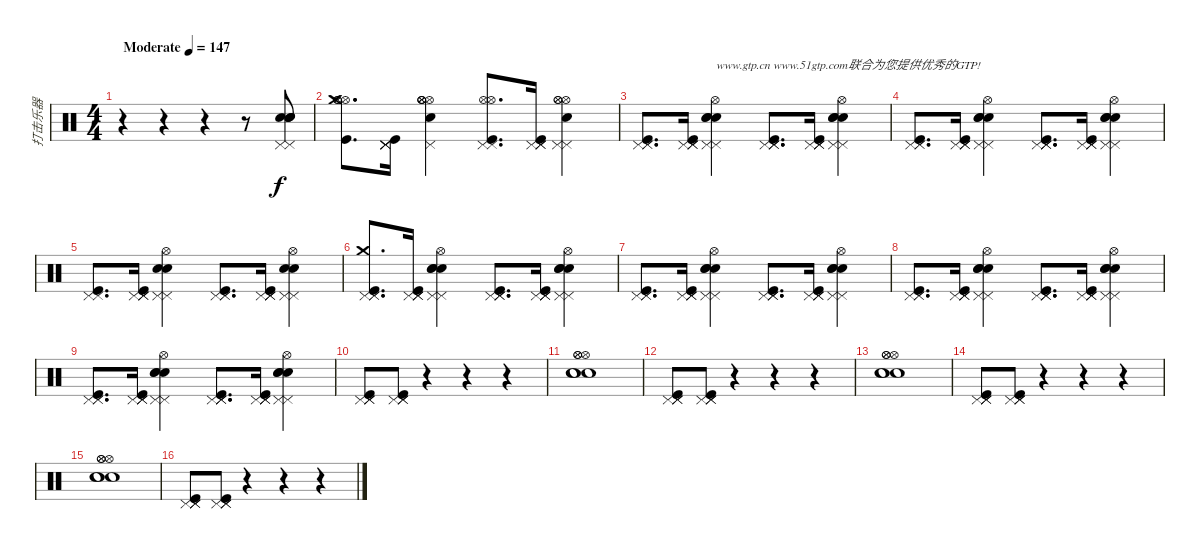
\track ("打击乐器" "打击乐器") {instrument percussion}
\staff {score}
\articulation defaults
\ts (4 4)
\tempo (147 "Moderate")
\clef neutral
\ks c
r.4{dy f} r.4 r.4 r.8 ("Pedal Hi-Hat (hit)" "Pedal Hi-Hat (hit)" "Electric Snare (hit)" "Electric Snare (hit)" "Electric Snare (hit)" "Electric Snare (hit)").8 |
("Hi-Hat (open)" "Hi-Hat (open)" "Hi-Hat (open)" "Crash medium (hit)" "Kick (hit)").8{d} ("Pedal Hi-Hat (hit)" "Pedal Hi-Hat (hit)" "Pedal Hi-Hat (hit)" "Pedal Hi-Hat (hit)" "Kick (hit)").16 ("Hi-Hat (open)" "Hi-Hat (open)" "Hi-Hat (open)" "Hi-Hat (open)" "Electric Snare (hit)" "Pedal Hi-Hat (hit)").4 ("Hi-Hat (open)" "Hi-Hat (open)" "Pedal Hi-Hat (hit)" "Pedal Hi-Hat (hit)" "Kick (hit)").8{d} ("Pedal Hi-Hat (hit)" "Pedal Hi-Hat (hit)" "Pedal Hi-Hat (hit)" "Pedal Hi-Hat (hit)" "Kick (hit)").16 ("Hi-Hat (open)" "Hi-Hat (open)" "Electric Snare (hit)" "Hi-Hat (open)" "Pedal Hi-Hat (hit)" "Pedal Hi-Hat (hit)").4 |
("Pedal Hi-Hat (hit)" "Pedal Hi-Hat (hit)" "Pedal Hi-Hat (hit)" "Kick (hit)").8{d} ("Pedal Hi-Hat (hit)" "Pedal Hi-Hat (hit)" "Pedal Hi-Hat (hit)" "Pedal Hi-Hat (hit)" "Kick (hit)").16 ("Electric Snare (hit)" "Electric Snare (hit)" "Electric Snare (hit)" "Hi-Hat (open)" "Pedal Hi-Hat (hit)" "Pedal Hi-Hat (hit)").4{txt "www.gtp.cn www.51gtp.com联合为您提供优秀的GTP!"} ("Pedal Hi-Hat (hit)" "Pedal Hi-Hat (hit)" "Pedal Hi-Hat (hit)" "Pedal Hi-Hat (hit)" "Kick (hit)").8{d} ("Pedal Hi-Hat (hit)" "Pedal Hi-Hat (hit)" "Pedal Hi-Hat (hit)" "Pedal Hi-Hat (hit)" "Kick (hit)").16 ("Electric Snare (hit)" "Electric Snare (hit)" "Electric Snare (hit)" "Hi-Hat (open)" "Pedal Hi-Hat (hit)" "Pedal Hi-Hat (hit)").4 |
("Pedal Hi-Hat (hit)" "Pedal Hi-Hat (hit)" "Pedal Hi-Hat (hit)" "Kick (hit)").8{d} ("Pedal Hi-Hat (hit)" "Pedal Hi-Hat (hit)" "Pedal Hi-Hat (hit)" "Pedal Hi-Hat (hit)" "Kick (hit)").16 ("Electric Snare (hit)" "Electric Snare (hit)" "Electric Snare (hit)" "Hi-Hat (open)" "Pedal Hi-Hat (hit)" "Pedal Hi-Hat (hit)").4 ("Pedal Hi-Hat (hit)" "Pedal Hi-Hat (hit)" "Pedal Hi-Hat (hit)" "Pedal Hi-Hat (hit)" "Kick (hit)").8{d} ("Pedal Hi-Hat (hit)" "Pedal Hi-Hat (hit)" "Pedal Hi-Hat (hit)" "Pedal Hi-Hat (hit)" "Kick (hit)").16 ("Electric Snare (hit)" "Electric Snare (hit)" "Electric Snare (hit)" "Hi-Hat (open)" "Pedal Hi-Hat (hit)" "Pedal Hi-Hat (hit)").4 |
("Pedal Hi-Hat (hit)" "Pedal Hi-Hat (hit)" "Kick (hit)").8{d} ("Pedal Hi-Hat (hit)" "Pedal Hi-Hat (hit)" "Pedal Hi-Hat (hit)" "Pedal Hi-Hat (hit)" "Kick (hit)").16 ("Electric Snare (hit)" "Electric Snare (hit)" "Hi-Hat (open)" "Pedal Hi-Hat (hit)" "Pedal Hi-Hat (hit)").4 ("Pedal Hi-Hat (hit)" "Pedal Hi-Hat (hit)" "Pedal Hi-Hat (hit)" "Kick (hit)").8{d} ("Pedal Hi-Hat (hit)" "Pedal Hi-Hat (hit)" "Pedal Hi-Hat (hit)" "Pedal Hi-Hat (hit)" "Kick (hit)").16 ("Electric Snare (hit)" "Electric Snare (hit)" "Hi-Hat (open)" "Pedal Hi-Hat (hit)" "Pedal Hi-Hat (hit)").4 |
("Pedal Hi-Hat (hit)" "Pedal Hi-Hat (hit)" "Pedal Hi-Hat (hit)" "Crash medium (hit)" "Kick (hit)").8{d} ("Pedal Hi-Hat (hit)" "Pedal Hi-Hat (hit)" "Pedal Hi-Hat (hit)" "Pedal Hi-Hat (hit)" "Kick (hit)").16 ("Electric Snare (hit)" "Electric Snare (hit)" "Electric Snare (hit)" "Hi-Hat (open)" "Pedal Hi-Hat (hit)" "Pedal Hi-Hat (hit)").4 ("Pedal Hi-Hat (hit)" "Pedal Hi-Hat (hit)" "Pedal Hi-Hat (hit)" "Pedal Hi-Hat (hit)" "Kick (hit)").8{d} ("Pedal Hi-Hat (hit)" "Pedal Hi-Hat (hit)" "Pedal Hi-Hat (hit)" "Pedal Hi-Hat (hit)" "Kick (hit)").16 ("Electric Snare (hit)" "Electric Snare (hit)" "Electric Snare (hit)" "Hi-Hat (open)" "Pedal Hi-Hat (hit)" "Pedal Hi-Hat (hit)").4 |
("Pedal Hi-Hat (hit)" "Pedal Hi-Hat (hit)" "Pedal Hi-Hat (hit)" "Kick (hit)").8{d} ("Pedal Hi-Hat (hit)" "Pedal Hi-Hat (hit)" "Pedal Hi-Hat (hit)" "Pedal Hi-Hat (hit)" "Kick (hit)").16 ("Electric Snare (hit)" "Electric Snare (hit)" "Electric Snare (hit)" "Hi-Hat (open)" "Pedal Hi-Hat (hit)" "Pedal Hi-Hat (hit)").4 ("Pedal Hi-Hat (hit)" "Pedal Hi-Hat (hit)" "Pedal Hi-Hat (hit)" "Pedal Hi-Hat (hit)" "Kick (hit)").8{d} ("Pedal Hi-Hat (hit)" "Pedal Hi-Hat (hit)" "Pedal Hi-Hat (hit)" "Pedal Hi-Hat (hit)" "Kick (hit)").16 ("Electric Snare (hit)" "Electric Snare (hit)" "Electric Snare (hit)" "Hi-Hat (open)" "Pedal Hi-Hat (hit)" "Pedal Hi-Hat (hit)").4 |
("Pedal Hi-Hat (hit)" "Pedal Hi-Hat (hit)" "Pedal Hi-Hat (hit)" "Kick (hit)").8{d} ("Pedal Hi-Hat (hit)" "Pedal Hi-Hat (hit)" "Pedal Hi-Hat (hit)" "Pedal Hi-Hat (hit)" "Kick (hit)").16 ("Electric Snare (hit)" "Electric Snare (hit)" "Electric Snare (hit)" "Hi-Hat (open)" "Pedal Hi-Hat (hit)" "Pedal Hi-Hat (hit)").4 ("Pedal Hi-Hat (hit)" "Pedal Hi-Hat (hit)" "Pedal Hi-Hat (hit)" "Pedal Hi-Hat (hit)" "Kick (hit)").8{d} ("Pedal Hi-Hat (hit)" "Pedal Hi-Hat (hit)" "Pedal Hi-Hat (hit)" "Pedal Hi-Hat (hit)" "Kick (hit)").16 ("Electric Snare (hit)" "Electric Snare (hit)" "Electric Snare (hit)" "Hi-Hat (open)" "Pedal Hi-Hat (hit)" "Pedal Hi-Hat (hit)").4 |
("Pedal Hi-Hat (hit)" "Pedal Hi-Hat (hit)" "Pedal Hi-Hat (hit)" "Kick (hit)").8{d} ("Pedal Hi-Hat (hit)" "Pedal Hi-Hat (hit)" "Pedal Hi-Hat (hit)" "Pedal Hi-Hat (hit)" "Kick (hit)").16 ("Electric Snare (hit)" "Electric Snare (hit)" "Electric Snare (hit)" "Hi-Hat (open)" "Pedal Hi-Hat (hit)" "Pedal Hi-Hat (hit)").4 ("Pedal Hi-Hat (hit)" "Pedal Hi-Hat (hit)" "Pedal Hi-Hat (hit)" "Pedal Hi-Hat (hit)" "Kick (hit)").8{d} ("Pedal Hi-Hat (hit)" "Pedal Hi-Hat (hit)" "Pedal Hi-Hat (hit)" "Pedal Hi-Hat (hit)" "Kick (hit)").16 ("Electric Snare (hit)" "Electric Snare (hit)" "Electric Snare (hit)" "Hi-Hat (open)" "Pedal Hi-Hat (hit)" "Pedal Hi-Hat (hit)").4 |
("Pedal Hi-Hat (hit)" "Pedal Hi-Hat (hit)" "Pedal Hi-Hat (hit)" "Pedal Hi-Hat (hit)" "Kick (hit)").8 ("Pedal Hi-Hat (hit)" "Pedal Hi-Hat (hit)" "Pedal Hi-Hat (hit)" "Pedal Hi-Hat (hit)" "Kick (hit)").8 r.4 r.4 r.4 |
("Hi-Hat (open)" "Hi-Hat (open)" "Hi-Hat (open)" "Electric Snare (hit)" "Electric Snare (hit)" "Electric Snare (hit)").1 |
("Pedal Hi-Hat (hit)" "Pedal Hi-Hat (hit)" "Pedal Hi-Hat (hit)" "Pedal Hi-Hat (hit)" "Kick (hit)").8 ("Pedal Hi-Hat (hit)" "Pedal Hi-Hat (hit)" "Pedal Hi-Hat (hit)" "Pedal Hi-Hat (hit)" "Kick (hit)").8 r.4 r.4 r.4 |
("Hi-Hat (open)" "Hi-Hat (open)" "Hi-Hat (open)" "Electric Snare (hit)" "Electric Snare (hit)" "Electric Snare (hit)").1 |
("Pedal Hi-Hat (hit)" "Pedal Hi-Hat (hit)" "Pedal Hi-Hat (hit)" "Pedal Hi-Hat (hit)" "Kick (hit)").8 ("Pedal Hi-Hat (hit)" "Pedal Hi-Hat (hit)" "Pedal Hi-Hat (hit)" "Pedal Hi-Hat (hit)" "Kick (hit)").8 r.4 r.4 r.4 |
("Hi-Hat (open)" "Hi-Hat (open)" "Hi-Hat (open)" "Electric Snare (hit)" "Electric Snare (hit)" "Electric Snare (hit)").1 |
("Pedal Hi-Hat (hit)" "Pedal Hi-Hat (hit)" "Pedal Hi-Hat (hit)" "Pedal Hi-Hat (hit)" "Kick (hit)").8 ("Pedal Hi-Hat (hit)" "Pedal Hi-Hat (hit)" "Pedal Hi-Hat (hit)" "Pedal Hi-Hat (hit)" "Kick (hit)").8 r.4 r.4 r.4
